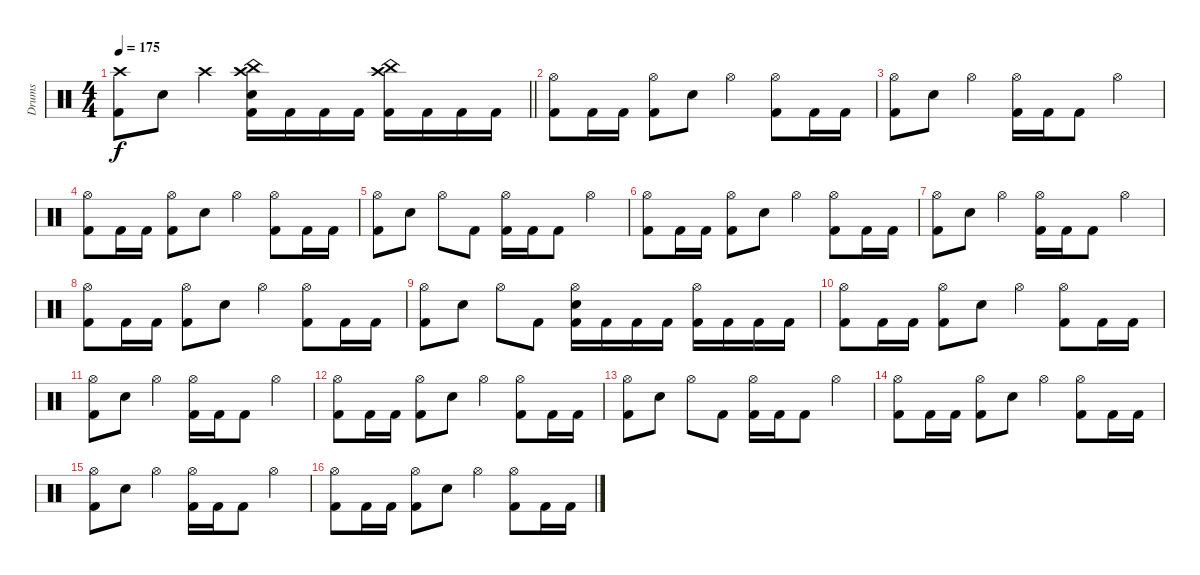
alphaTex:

\track ("Drums" "Drums") {instrument percussion}
\staff {score}
\articulation defaults
\ts (4 4)
\tempo 175
\clef neutral
\barLineRight lightlight
\ks c
("Crash high (hit)" "Kick (hit) 2").8{dy f} "Snare (hit) 2".8 "Crash high (hit)".4 ("Crash high (hit)" "China (hit)" "Snare (hit) 2" "Kick (hit) 2").16 "Kick (hit) 2".16 "Kick (hit) 2".16 "Kick (hit) 2".16 ("Crash high (hit)" "China (hit)" "Kick (hit) 2").16 "Kick (hit) 2".16 "Kick (hit) 2".16 "Kick (hit) 2".16 |
("Hi-Hat (open)" "Kick (hit) 2").8 "Kick (hit) 2".16 "Kick (hit) 2".16 ("Hi-Hat (open)" "Kick (hit) 2").8 "Snare (hit) 2".8 "Hi-Hat (open)".4 ("Hi-Hat (open)" "Kick (hit) 2").8 "Kick (hit) 2".16 "Kick (hit) 2".16 |
("Hi-Hat (open)" "Kick (hit) 2").8 "Snare (hit) 2".8 "Hi-Hat (open)".4 ("Hi-Hat (open)" "Kick (hit) 2").16 "Kick (hit) 2".16 "Kick (hit) 2".8 "Hi-Hat (open)".4 |
("Hi-Hat (open)" "Kick (hit) 2").8 "Kick (hit) 2".16 "Kick (hit) 2".16 ("Hi-Hat (open)" "Kick (hit) 2").8 "Snare (hit) 2".8 "Hi-Hat (open)".4 ("Hi-Hat (open)" "Kick (hit) 2").8 "Kick (hit) 2".16 "Kick (hit) 2".16 |
("Hi-Hat (open)" "Kick (hit) 2").8 "Snare (hit) 2".8 "Hi-Hat (open)".8 "Kick (hit) 2".8 ("Hi-Hat (open)" "Kick (hit) 2").16 "Kick (hit) 2".16 "Kick (hit) 2".8 "Hi-Hat (open)".4 |
\section ("" "")
("Hi-Hat (open)" "Kick (hit) 2").8 "Kick (hit) 2".16 "Kick (hit) 2".16 ("Hi-Hat (open)" "Kick (hit) 2").8 "Snare (hit) 2".8 "Hi-Hat (open)".4 ("Hi-Hat (open)" "Kick (hit) 2").8 "Kick (hit) 2".16 "Kick (hit) 2".16 |
("Hi-Hat (open)" "Kick (hit) 2").8 "Snare (hit) 2".8 "Hi-Hat (open)".4 ("Hi-Hat (open)" "Kick (hit) 2").16 "Kick (hit) 2".16 "Kick (hit) 2".8 "Hi-Hat (open)".4 |
("Hi-Hat (open)" "Kick (hit) 2").8 "Kick (hit) 2".16 "Kick (hit) 2".16 ("Hi-Hat (open)" "Kick (hit) 2").8 "Snare (hit) 2".8 "Hi-Hat (open)".4 ("Hi-Hat (open)" "Kick (hit) 2").8 "Kick (hit) 2".16 "Kick (hit) 2".16 |
("Hi-Hat (open)" "Kick (hit) 2").8 "Snare (hit) 2".8 "Hi-Hat (open)".8 "Kick (hit) 2".8 ("Hi-Hat (open)" "Snare (hit) 2" "Kick (hit) 2").16 "Kick (hit) 2".16 "Kick (hit) 2".16 "Kick (hit) 2".16 ("Hi-Hat (open)" "Kick (hit) 2").16 "Kick (hit) 2".16 "Kick (hit) 2".16 "Kick (hit) 2".16 |
("Hi-Hat (open)" "Kick (hit) 2").8 "Kick (hit) 2".16 "Kick (hit) 2".16 ("Hi-Hat (open)" "Kick (hit) 2").8 "Snare (hit) 2".8 "Hi-Hat (open)".4 ("Hi-Hat (open)" "Kick (hit) 2").8 "Kick (hit) 2".16 "Kick (hit) 2".16 |
("Hi-Hat (open)" "Kick (hit) 2").8 "Snare (hit) 2".8 "Hi-Hat (open)".4 ("Hi-Hat (open)" "Kick (hit) 2").16 "Kick (hit) 2".16 "Kick (hit) 2".8 "Hi-Hat (open)".4 |
("Hi-Hat (open)" "Kick (hit) 2").8 "Kick (hit) 2".16 "Kick (hit) 2".16 ("Hi-Hat (open)" "Kick (hit) 2").8 "Snare (hit) 2".8 "Hi-Hat (open)".4 ("Hi-Hat (open)" "Kick (hit) 2").8 "Kick (hit) 2".16 "Kick (hit) 2".16 |
("Hi-Hat (open)" "Kick (hit) 2").8 "Snare (hit) 2".8 "Hi-Hat (open)".8 "Kick (hit) 2".8 ("Hi-Hat (open)" "Kick (hit) 2").16 "Kick (hit) 2".16 "Kick (hit) 2".8 "Hi-Hat (open)".4 |
("Hi-Hat (open)" "Kick (hit) 2").8 "Kick (hit) 2".16 "Kick (hit) 2".16 ("Hi-Hat (open)" "Kick (hit) 2").8 "Snare (hit) 2".8 "Hi-Hat (open)".4 ("Hi-Hat (open)" "Kick (hit) 2").8 "Kick (hit) 2".16 "Kick (hit) 2".16 |
("Hi-Hat (open)" "Kick (hit) 2").8 "Snare (hit) 2".8 "Hi-Hat (open)".4 ("Hi-Hat (open)" "Kick (hit) 2").16 "Kick (hit) 2".16 "Kick (hit) 2".8 "Hi-Hat (open)".4 |
("Hi-Hat (open)" "Kick (hit) 2").8 "Kick (hit) 2".16 "Kick (hit) 2".16 ("Hi-Hat (open)" "Kick (hit) 2").8 "Snare (hit) 2".8 "Hi-Hat (open)".4 ("Hi-Hat (open)" "Kick (hit) 2").8 "Kick (hit) 2".16 "Kick (hit) 2".16
